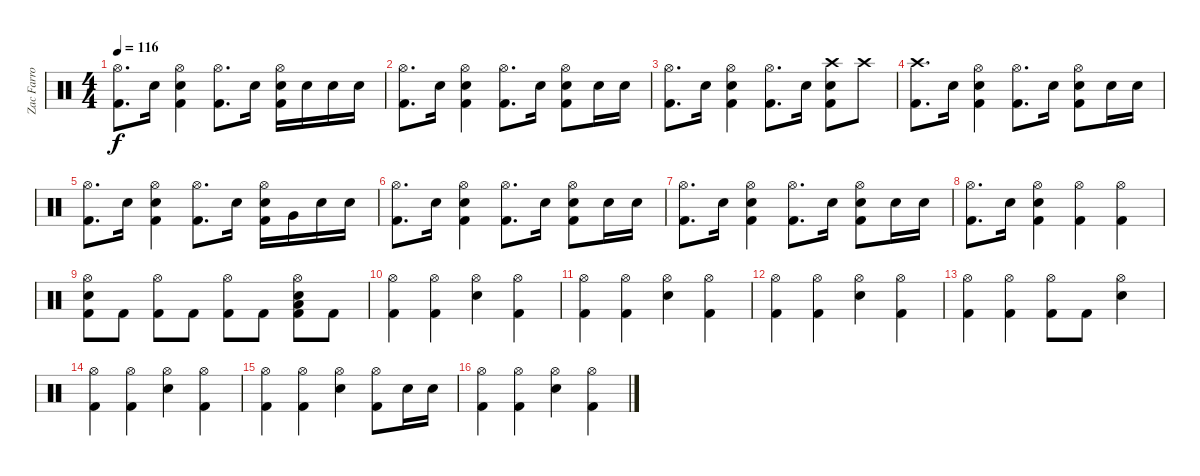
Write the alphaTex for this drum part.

\track ("Zac Farro" "Zac Farro") {instrument percussion}
\staff {score}
\articulation defaults
\ts (4 4)
\tempo 116
\clef neutral
\ks c
("Hi-Hat (open)" "Kick (hit) 2").8{d dy f} "Electric Snare (hit)".16 ("Hi-Hat (open)" "Kick (hit) 2" "Electric Snare (hit)").4 ("Hi-Hat (open)" "Kick (hit) 2").8{d} "Electric Snare (hit)".16 ("Hi-Hat (open)" "Kick (hit) 2" "Electric Snare (hit)").16 "Electric Snare (hit)".16 "Electric Snare (hit)".16 "Electric Snare (hit)".16 |
("Hi-Hat (open)" "Kick (hit) 2").8{d} "Electric Snare (hit)".16 ("Hi-Hat (open)" "Kick (hit) 2" "Electric Snare (hit)").4 ("Hi-Hat (open)" "Kick (hit) 2").8{d} "Electric Snare (hit)".16 ("Hi-Hat (open)" "Kick (hit) 2" "Electric Snare (hit)").8 "Electric Snare (hit)".16 "Electric Snare (hit)".16 |
("Hi-Hat (open)" "Kick (hit) 2").8{d} "Electric Snare (hit)".16 ("Hi-Hat (open)" "Kick (hit) 2" "Electric Snare (hit)").4 ("Hi-Hat (open)" "Kick (hit) 2").8{d} "Electric Snare (hit)".16 ("Crash high (hit)" "Kick (hit) 2" "Electric Snare (hit)").8 "Crash high (hit)".8 |
("Crash high (hit)" "Kick (hit) 2").8{d} "Electric Snare (hit)".16 ("Hi-Hat (open)" "Kick (hit) 2" "Electric Snare (hit)").4 ("Hi-Hat (open)" "Kick (hit) 2").8{d} "Electric Snare (hit)".16 ("Hi-Hat (open)" "Kick (hit) 2" "Electric Snare (hit)").8 "Electric Snare (hit)".16 "Electric Snare (hit)".16 |
("Hi-Hat (open)" "Kick (hit) 2").8{d} "Electric Snare (hit)".16 ("Hi-Hat (open)" "Kick (hit) 2" "Electric Snare (hit)").4 ("Hi-Hat (open)" "Kick (hit) 2").8{d} "Electric Snare (hit)".16 ("Hi-Hat (open)" "Kick (hit) 2" "Electric Snare (hit)").16 "Very Low Tom (hit)".16 "Electric Snare (hit)".16 "Electric Snare (hit)".16 |
("Hi-Hat (open)" "Kick (hit) 2").8{d} "Electric Snare (hit)".16 ("Hi-Hat (open)" "Kick (hit) 2" "Electric Snare (hit)").4 ("Hi-Hat (open)" "Kick (hit) 2").8{d} "Electric Snare (hit)".16 ("Hi-Hat (open)" "Kick (hit) 2" "Electric Snare (hit)").8 "Electric Snare (hit)".16 "Electric Snare (hit)".16 |
("Hi-Hat (open)" "Kick (hit) 2").8{d} "Electric Snare (hit)".16 ("Hi-Hat (open)" "Kick (hit) 2" "Electric Snare (hit)").4 ("Hi-Hat (open)" "Kick (hit) 2").8{d} "Electric Snare (hit)".16 ("Hi-Hat (open)" "Kick (hit) 2" "Electric Snare (hit)").8 "Electric Snare (hit)".16 "Electric Snare (hit)".16 |
("Hi-Hat (open)" "Kick (hit) 2").8{d} "Electric Snare (hit)".16 ("Hi-Hat (open)" "Kick (hit) 2" "Electric Snare (hit)").4 ("Hi-Hat (open)" "Kick (hit) 2").4 ("Hi-Hat (open)" "Kick (hit) 2").4 |
("Hi-Hat (open)" "Kick (hit) 2" "Electric Snare (hit)").8 "Kick (hit) 2".8 ("Hi-Hat (open)" "Kick (hit) 2").8 "Kick (hit) 2".8 ("Hi-Hat (open)" "Kick (hit) 2").8 "Kick (hit) 2".8 ("Hi-Hat (open)" "Kick (hit) 2" "Low Tom (hit)" "Electric Snare (hit)").8 "Kick (hit) 2".8 |
("Hi-Hat (open)" "Kick (hit) 2").4 ("Hi-Hat (open)" "Kick (hit) 2").4 ("Hi-Hat (open)" "Electric Snare (hit)").4 ("Hi-Hat (open)" "Kick (hit) 2").4 |
("Hi-Hat (open)" "Kick (hit) 2").4 ("Hi-Hat (open)" "Kick (hit) 2").4 ("Hi-Hat (open)" "Electric Snare (hit)").4 ("Hi-Hat (open)" "Kick (hit) 2").4 |
("Hi-Hat (open)" "Kick (hit) 2").4 ("Hi-Hat (open)" "Kick (hit) 2").4 ("Hi-Hat (open)" "Electric Snare (hit)").4 ("Hi-Hat (open)" "Kick (hit) 2").4 |
("Hi-Hat (open)" "Kick (hit) 2").4 ("Hi-Hat (open)" "Kick (hit) 2").4 ("Hi-Hat (open)" "Kick (hit) 2").8 "Kick (hit) 2".8 ("Hi-Hat (open)" "Electric Snare (hit)").4 |
("Hi-Hat (open)" "Kick (hit) 2").4 ("Hi-Hat (open)" "Kick (hit) 2").4 ("Hi-Hat (open)" "Electric Snare (hit)").4 ("Hi-Hat (open)" "Kick (hit) 2").4 |
("Hi-Hat (open)" "Kick (hit) 2").4 ("Hi-Hat (open)" "Kick (hit) 2").4 ("Hi-Hat (open)" "Electric Snare (hit)").4 ("Hi-Hat (open)" "Kick (hit) 2").8 "Electric Snare (hit)".16 "Electric Snare (hit)".16 |
("Hi-Hat (open)" "Kick (hit) 2").4 ("Hi-Hat (open)" "Kick (hit) 2").4 ("Hi-Hat (open)" "Electric Snare (hit)").4 ("Hi-Hat (open)" "Kick (hit) 2").4
